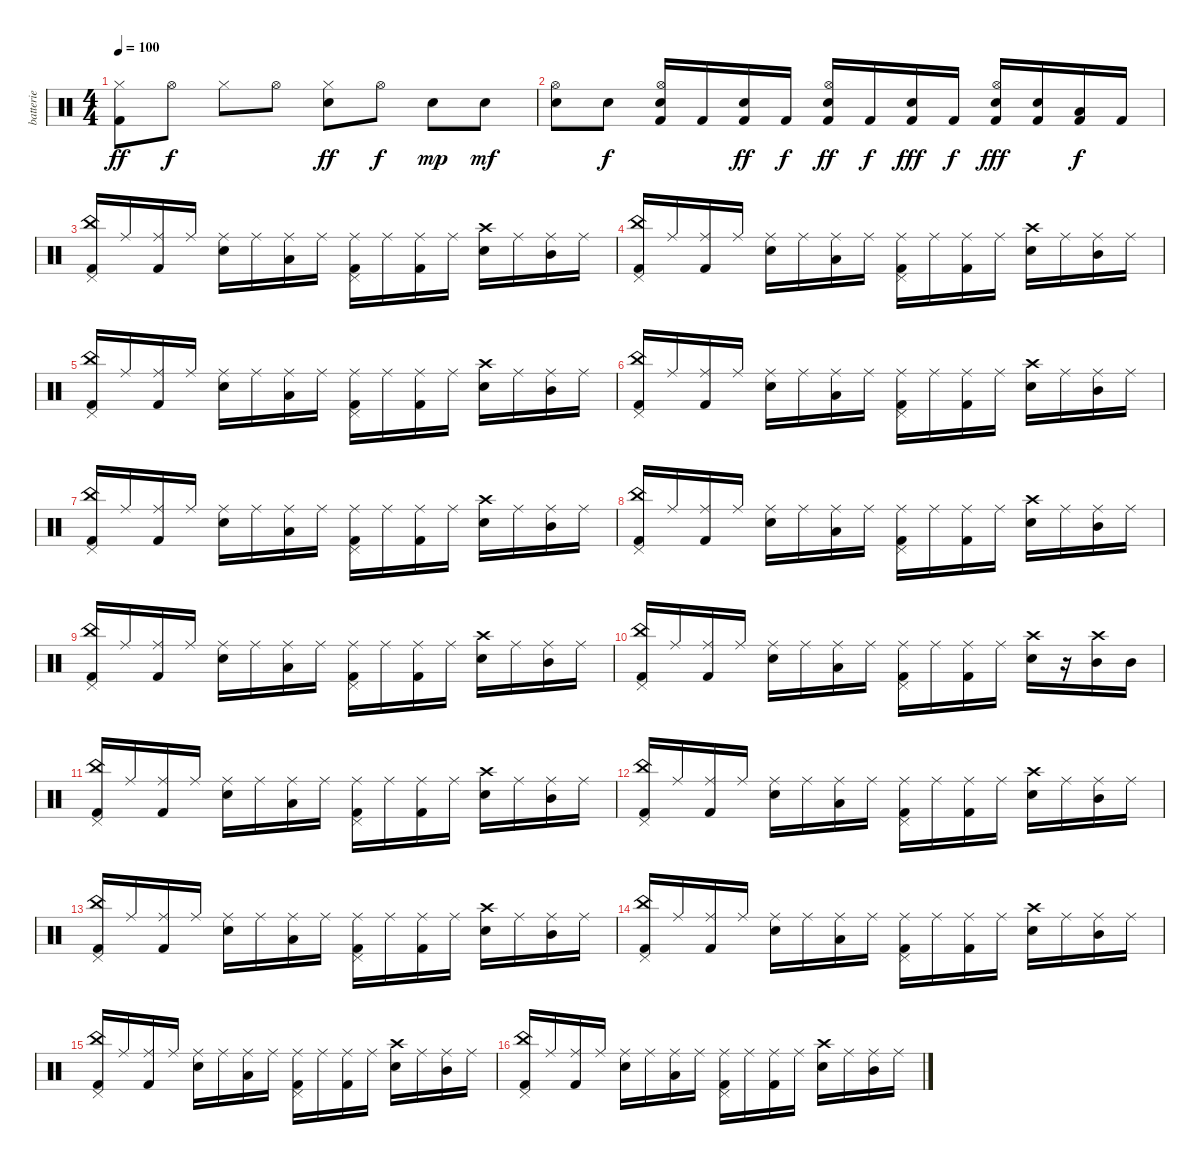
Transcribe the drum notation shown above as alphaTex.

\track ("batterie" "batterie") {instrument percussion}
\staff {score}
\articulation defaults
\ts (4 4)
\tempo 100
\clef neutral
\ks c
("Hi-Hat (closed)" "Kick (hit) 2").8{dy ff} "Hi-Hat (open)".8{dy f} "Hi-Hat (closed)".8 "Hi-Hat (open)".8 ("Hi-Hat (closed)" "Snare (hit) 2").8{dy ff} "Hi-Hat (open)".8{dy f} "Snare (hit) 2".8{dy mp} "Snare (hit) 2".8{dy mf} |
("Hi-Hat (open)" "Snare (hit) 2").8 "Snare (hit) 2".8{dy f} ("Hi-Hat (open)" "Snare (hit) 2" "Kick (hit) 2").16 "Kick (hit) 2".16 ("Snare (hit) 2" "Kick (hit) 2").16{dy ff} "Kick (hit) 2".16{dy f} ("Hi-Hat (open)" "Snare (hit) 2" "Kick (hit) 2").16{dy ff} "Kick (hit) 2".16{dy f} ("Snare (hit) 2" "Kick (hit) 2").16{dy fff} "Kick (hit) 2".16{dy f} ("Hi-Hat (open)" "Snare (hit) 2" "Kick (hit) 2").16{dy fff} ("Snare (hit) 2" "Kick (hit) 2").16 ("Low Floor Tom (hit)" "Kick (hit) 2").16{dy f} "Kick (hit) 2".16 |
("China (hit)" "Pedal Hi-Hat (hit)" "Kick (hit) 2").16 "Ride (middle)".16 ("Ride (middle)" "Kick (hit) 2").16 "Ride (middle)".16 ("Ride (middle)" "Snare (hit) 2").16 "Ride (middle)".16 ("Ride (middle)" "Low Floor Tom (hit)").16 "Ride (middle)".16 ("Ride (middle)" "Pedal Hi-Hat (hit)" "Kick (hit) 2").16 "Ride (middle)".16 ("Ride (middle)" "Kick (hit) 2").16 "Ride (middle)".16 ("Crash high (hit)" "Snare (hit) 2").16 "Ride (middle)".16 ("Ride (middle)" "Mid Tom (hit)").16 "Ride (middle)".16 |
("China (hit)" "Pedal Hi-Hat (hit)" "Kick (hit) 2").16 "Ride (middle)".16 ("Ride (middle)" "Kick (hit) 2").16 "Ride (middle)".16 ("Ride (middle)" "Snare (hit) 2").16 "Ride (middle)".16 ("Ride (middle)" "Low Floor Tom (hit)").16 "Ride (middle)".16 ("Ride (middle)" "Pedal Hi-Hat (hit)" "Kick (hit) 2").16 "Ride (middle)".16 ("Ride (middle)" "Kick (hit) 2").16 "Ride (middle)".16 ("Crash high (hit)" "Snare (hit) 2").16 "Ride (middle)".16 ("Ride (middle)" "Mid Tom (hit)").16 "Ride (middle)".16 |
("China (hit)" "Pedal Hi-Hat (hit)" "Kick (hit) 2").16 "Ride (middle)".16 ("Ride (middle)" "Kick (hit) 2").16 "Ride (middle)".16 ("Ride (middle)" "Snare (hit) 2").16 "Ride (middle)".16 ("Ride (middle)" "Low Floor Tom (hit)").16 "Ride (middle)".16 ("Ride (middle)" "Pedal Hi-Hat (hit)" "Kick (hit) 2").16 "Ride (middle)".16 ("Ride (middle)" "Kick (hit) 2").16 "Ride (middle)".16 ("Crash high (hit)" "Snare (hit) 2").16 "Ride (middle)".16 ("Ride (middle)" "Mid Tom (hit)").16 "Ride (middle)".16 |
("China (hit)" "Pedal Hi-Hat (hit)" "Kick (hit) 2").16 "Ride (middle)".16 ("Ride (middle)" "Kick (hit) 2").16 "Ride (middle)".16 ("Ride (middle)" "Snare (hit) 2").16 "Ride (middle)".16 ("Ride (middle)" "Low Floor Tom (hit)").16 "Ride (middle)".16 ("Ride (middle)" "Pedal Hi-Hat (hit)" "Kick (hit) 2").16 "Ride (middle)".16 ("Ride (middle)" "Kick (hit) 2").16 "Ride (middle)".16 ("Crash high (hit)" "Snare (hit) 2").16 "Ride (middle)".16 ("Ride (middle)" "Mid Tom (hit)").16 "Ride (middle)".16 |
("China (hit)" "Pedal Hi-Hat (hit)" "Kick (hit) 2").16 "Ride (middle)".16 ("Ride (middle)" "Kick (hit) 2").16 "Ride (middle)".16 ("Ride (middle)" "Snare (hit) 2").16 "Ride (middle)".16 ("Ride (middle)" "Low Floor Tom (hit)").16 "Ride (middle)".16 ("Ride (middle)" "Pedal Hi-Hat (hit)" "Kick (hit) 2").16 "Ride (middle)".16 ("Ride (middle)" "Kick (hit) 2").16 "Ride (middle)".16 ("Crash high (hit)" "Snare (hit) 2").16 "Ride (middle)".16 ("Ride (middle)" "Mid Tom (hit)").16 "Ride (middle)".16 |
("China (hit)" "Pedal Hi-Hat (hit)" "Kick (hit) 2").16 "Ride (middle)".16 ("Ride (middle)" "Kick (hit) 2").16 "Ride (middle)".16 ("Ride (middle)" "Snare (hit) 2").16 "Ride (middle)".16 ("Ride (middle)" "Low Floor Tom (hit)").16 "Ride (middle)".16 ("Ride (middle)" "Pedal Hi-Hat (hit)" "Kick (hit) 2").16 "Ride (middle)".16 ("Ride (middle)" "Kick (hit) 2").16 "Ride (middle)".16 ("Crash high (hit)" "Snare (hit) 2").16 "Ride (middle)".16 ("Ride (middle)" "Mid Tom (hit)").16 "Ride (middle)".16 |
("China (hit)" "Pedal Hi-Hat (hit)" "Kick (hit) 2").16 "Ride (middle)".16 ("Ride (middle)" "Kick (hit) 2").16 "Ride (middle)".16 ("Ride (middle)" "Snare (hit) 2").16 "Ride (middle)".16 ("Ride (middle)" "Low Floor Tom (hit)").16 "Ride (middle)".16 ("Ride (middle)" "Pedal Hi-Hat (hit)" "Kick (hit) 2").16 "Ride (middle)".16 ("Ride (middle)" "Kick (hit) 2").16 "Ride (middle)".16 ("Crash high (hit)" "Snare (hit) 2").16 "Ride (middle)".16 ("Ride (middle)" "Mid Tom (hit)").16 "Ride (middle)".16 |
("China (hit)" "Pedal Hi-Hat (hit)" "Kick (hit) 2").16 "Ride (middle)".16 ("Ride (middle)" "Kick (hit) 2").16 "Ride (middle)".16 ("Ride (middle)" "Snare (hit) 2").16 "Ride (middle)".16 ("Ride (middle)" "Low Floor Tom (hit)").16 "Ride (middle)".16 ("Ride (middle)" "Pedal Hi-Hat (hit)" "Kick (hit) 2").16 "Ride (middle)".16 ("Ride (middle)" "Kick (hit) 2").16 "Ride (middle)".16 ("Crash high (hit)" "Snare (hit) 2").16 r.16 ("Crash high (hit)" "Mid Tom (hit)").16 "Mid Tom (hit)".16 |
("China (hit)" "Pedal Hi-Hat (hit)" "Kick (hit) 2").16 "Ride (middle)".16 ("Ride (middle)" "Kick (hit) 2").16 "Ride (middle)".16 ("Ride (middle)" "Snare (hit) 2").16 "Ride (middle)".16 ("Ride (middle)" "Low Floor Tom (hit)").16 "Ride (middle)".16 ("Ride (middle)" "Pedal Hi-Hat (hit)" "Kick (hit) 2").16 "Ride (middle)".16 ("Ride (middle)" "Kick (hit) 2").16 "Ride (middle)".16 ("Crash high (hit)" "Snare (hit) 2").16 "Ride (middle)".16 ("Ride (middle)" "Mid Tom (hit)").16 "Ride (middle)".16 |
("China (hit)" "Pedal Hi-Hat (hit)" "Kick (hit) 2").16 "Ride (middle)".16 ("Ride (middle)" "Kick (hit) 2").16 "Ride (middle)".16 ("Ride (middle)" "Snare (hit) 2").16 "Ride (middle)".16 ("Ride (middle)" "Low Floor Tom (hit)").16 "Ride (middle)".16 ("Ride (middle)" "Pedal Hi-Hat (hit)" "Kick (hit) 2").16 "Ride (middle)".16 ("Ride (middle)" "Kick (hit) 2").16 "Ride (middle)".16 ("Crash high (hit)" "Snare (hit) 2").16 "Ride (middle)".16 ("Ride (middle)" "Mid Tom (hit)").16 "Ride (middle)".16 |
("China (hit)" "Pedal Hi-Hat (hit)" "Kick (hit) 2").16 "Ride (middle)".16 ("Ride (middle)" "Kick (hit) 2").16 "Ride (middle)".16 ("Ride (middle)" "Snare (hit) 2").16 "Ride (middle)".16 ("Ride (middle)" "Low Floor Tom (hit)").16 "Ride (middle)".16 ("Ride (middle)" "Pedal Hi-Hat (hit)" "Kick (hit) 2").16 "Ride (middle)".16 ("Ride (middle)" "Kick (hit) 2").16 "Ride (middle)".16 ("Crash high (hit)" "Snare (hit) 2").16 "Ride (middle)".16 ("Ride (middle)" "Mid Tom (hit)").16 "Ride (middle)".16 |
("China (hit)" "Pedal Hi-Hat (hit)" "Kick (hit) 2").16 "Ride (middle)".16 ("Ride (middle)" "Kick (hit) 2").16 "Ride (middle)".16 ("Ride (middle)" "Snare (hit) 2").16 "Ride (middle)".16 ("Ride (middle)" "Low Floor Tom (hit)").16 "Ride (middle)".16 ("Ride (middle)" "Pedal Hi-Hat (hit)" "Kick (hit) 2").16 "Ride (middle)".16 ("Ride (middle)" "Kick (hit) 2").16 "Ride (middle)".16 ("Crash high (hit)" "Snare (hit) 2").16 "Ride (middle)".16 ("Ride (middle)" "Mid Tom (hit)").16 "Ride (middle)".16 |
("China (hit)" "Pedal Hi-Hat (hit)" "Kick (hit) 2").16 "Ride (middle)".16 ("Ride (middle)" "Kick (hit) 2").16 "Ride (middle)".16 ("Ride (middle)" "Snare (hit) 2").16 "Ride (middle)".16 ("Ride (middle)" "Low Floor Tom (hit)").16 "Ride (middle)".16 ("Ride (middle)" "Pedal Hi-Hat (hit)" "Kick (hit) 2").16 "Ride (middle)".16 ("Ride (middle)" "Kick (hit) 2").16 "Ride (middle)".16 ("Crash high (hit)" "Snare (hit) 2").16 "Ride (middle)".16 ("Ride (middle)" "Mid Tom (hit)").16 "Ride (middle)".16 |
("China (hit)" "Pedal Hi-Hat (hit)" "Kick (hit) 2").16 "Ride (middle)".16 ("Ride (middle)" "Kick (hit) 2").16 "Ride (middle)".16 ("Ride (middle)" "Snare (hit) 2").16 "Ride (middle)".16 ("Ride (middle)" "Low Floor Tom (hit)").16 "Ride (middle)".16 ("Ride (middle)" "Pedal Hi-Hat (hit)" "Kick (hit) 2").16 "Ride (middle)".16 ("Ride (middle)" "Kick (hit) 2").16 "Ride (middle)".16 ("Crash high (hit)" "Snare (hit) 2").16 "Ride (middle)".16 ("Ride (middle)" "Mid Tom (hit)").16 "Ride (middle)".16
